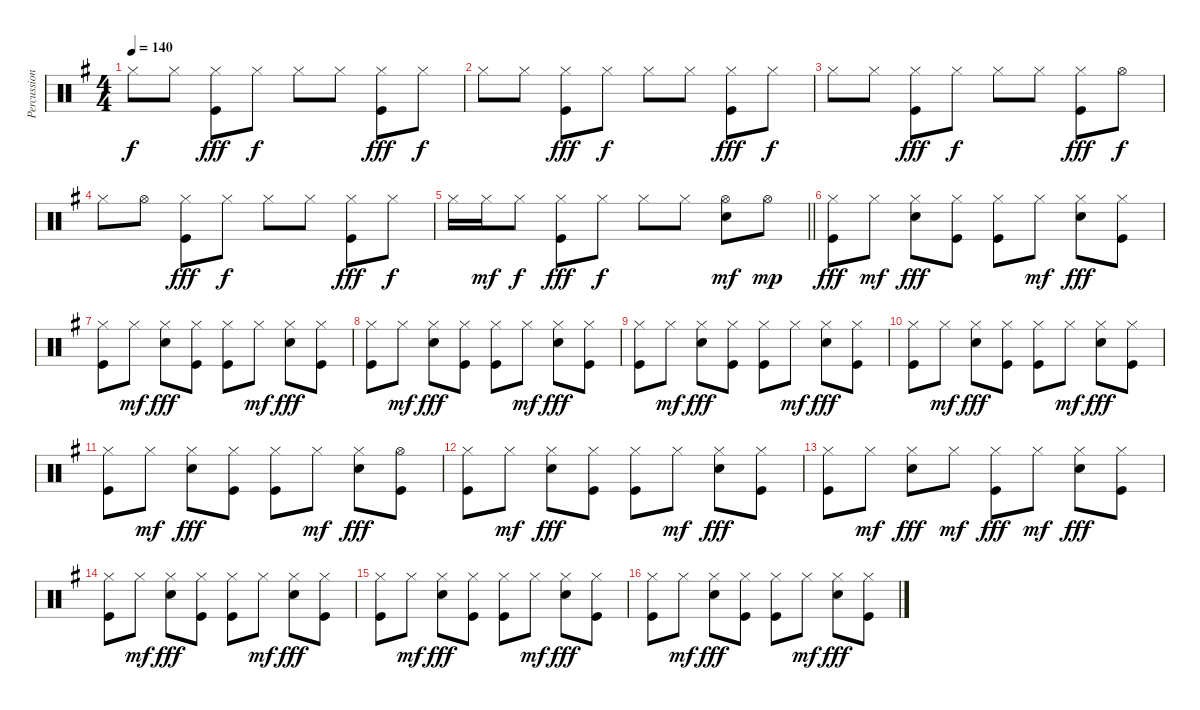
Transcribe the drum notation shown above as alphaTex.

\track ("Percussioni" "Percussion") {instrument percussion}
\staff {score}
\articulation defaults
\ts (4 4)
\tempo 140
\clef neutral
\ks eminor "Hi-Hat (closed)".8{dy f} "Hi-Hat (closed)".8
("Hi-Hat (closed)" "Kick (hit)").8{dy fff} "Hi-Hat (closed)".8{dy f} "Hi-Hat (closed)".8 "Hi-Hat (closed)".8 ("Hi-Hat (closed)" "Kick (hit)").8{dy fff} "Hi-Hat (closed)".8{dy f} |
"Hi-Hat (closed)".8 "Hi-Hat (closed)".8 ("Hi-Hat (closed)" "Kick (hit)").8{dy fff} "Hi-Hat (closed)".8{dy f} "Hi-Hat (closed)".8 "Hi-Hat (closed)".8 ("Hi-Hat (closed)" "Kick (hit)").8{dy fff} "Hi-Hat (closed)".8{dy f} |
"Hi-Hat (closed)".8 "Hi-Hat (closed)".8 ("Hi-Hat (closed)" "Kick (hit)").8{dy fff} "Hi-Hat (closed)".8{dy f} "Hi-Hat (closed)".8 "Hi-Hat (closed)".8 ("Hi-Hat (closed)" "Kick (hit)").8{dy fff} "Hi-Hat (open)".8{dy f} |
"Hi-Hat (closed)".8 "Hi-Hat (open)".8 ("Hi-Hat (closed)" "Kick (hit)").8{dy fff} "Hi-Hat (closed)".8{dy f} "Hi-Hat (closed)".8 "Hi-Hat (closed)".8 ("Hi-Hat (closed)" "Kick (hit)").8{dy fff} "Hi-Hat (closed)".8{dy f} |
\barLineRight lightlight "Hi-Hat (closed)".16 "Hi-Hat (closed)".16{dy mf} "Hi-Hat (closed)".8{dy f}
("Hi-Hat (closed)" "Kick (hit)").8{dy fff} "Hi-Hat (closed)".8{dy f} "Hi-Hat (closed)".8 "Hi-Hat (closed)".8 ("Hi-Hat (open)" "Electric Snare (hit)").8{dy mf} "Hi-Hat (open)".8{dy mp} |
\section ("" "")
("Hi-Hat (closed)" "Kick (hit)").8{dy fff} "Hi-Hat (closed)".8{dy mf} ("Hi-Hat (closed)" "Electric Snare (hit)").8{dy fff} ("Hi-Hat (closed)" "Kick (hit)").8 ("Hi-Hat (closed)" "Kick (hit)").8 "Hi-Hat (closed)".8{dy mf} ("Hi-Hat (closed)" "Electric Snare (hit)").8{dy fff} ("Hi-Hat (closed)" "Kick (hit)").8 |
("Hi-Hat (closed)" "Kick (hit)").8 "Hi-Hat (closed)".8{dy mf} ("Hi-Hat (closed)" "Electric Snare (hit)").8{dy fff} ("Hi-Hat (closed)" "Kick (hit)").8 ("Hi-Hat (closed)" "Kick (hit)").8 "Hi-Hat (closed)".8{dy mf} ("Hi-Hat (closed)" "Electric Snare (hit)").8{dy fff} ("Hi-Hat (closed)" "Kick (hit)").8 |
("Hi-Hat (closed)" "Kick (hit)").8 "Hi-Hat (closed)".8{dy mf} ("Hi-Hat (closed)" "Electric Snare (hit)").8{dy fff} ("Hi-Hat (closed)" "Kick (hit)").8 ("Hi-Hat (closed)" "Kick (hit)").8 "Hi-Hat (closed)".8{dy mf} ("Hi-Hat (closed)" "Electric Snare (hit)").8{dy fff} ("Hi-Hat (closed)" "Kick (hit)").8 |
("Hi-Hat (closed)" "Kick (hit)").8 "Hi-Hat (closed)".8{dy mf} ("Hi-Hat (closed)" "Electric Snare (hit)").8{dy fff} ("Hi-Hat (closed)" "Kick (hit)").8 ("Hi-Hat (closed)" "Kick (hit)").8 "Hi-Hat (closed)".8{dy mf} ("Hi-Hat (closed)" "Electric Snare (hit)").8{dy fff} ("Hi-Hat (closed)" "Kick (hit)").8 |
("Hi-Hat (closed)" "Kick (hit)").8 "Hi-Hat (closed)".8{dy mf} ("Hi-Hat (closed)" "Electric Snare (hit)").8{dy fff} ("Hi-Hat (closed)" "Kick (hit)").8 ("Hi-Hat (closed)" "Kick (hit)").8 "Hi-Hat (closed)".8{dy mf} ("Hi-Hat (closed)" "Electric Snare (hit)").8{dy fff} ("Hi-Hat (closed)" "Kick (hit)").8 |
("Hi-Hat (closed)" "Kick (hit)").8 "Hi-Hat (closed)".8{dy mf} ("Hi-Hat (closed)" "Electric Snare (hit)").8{dy fff} ("Hi-Hat (closed)" "Kick (hit)").8 ("Hi-Hat (closed)" "Kick (hit)").8 "Hi-Hat (closed)".8{dy mf} ("Hi-Hat (closed)" "Electric Snare (hit)").8{dy fff} ("Hi-Hat (open)" "Kick (hit)").8 |
("Hi-Hat (closed)" "Kick (hit)").8 "Hi-Hat (closed)".8{dy mf} ("Hi-Hat (closed)" "Electric Snare (hit)").8{dy fff} ("Hi-Hat (closed)" "Kick (hit)").8 ("Hi-Hat (closed)" "Kick (hit)").8 "Hi-Hat (closed)".8{dy mf} ("Hi-Hat (closed)" "Electric Snare (hit)").8{dy fff} ("Hi-Hat (closed)" "Kick (hit)").8 |
("Hi-Hat (closed)" "Kick (hit)").8 "Hi-Hat (closed)".8{dy mf} ("Hi-Hat (closed)" "Electric Snare (hit)").8{dy fff} "Hi-Hat (closed)".8{dy mf} ("Hi-Hat (closed)" "Kick (hit)").8{dy fff} "Hi-Hat (closed)".8{dy mf} ("Hi-Hat (closed)" "Electric Snare (hit)").8{dy fff} ("Hi-Hat (closed)" "Kick (hit)").8 |
("Hi-Hat (closed)" "Kick (hit)").8 "Hi-Hat (closed)".8{dy mf} ("Hi-Hat (closed)" "Electric Snare (hit)").8{dy fff} ("Hi-Hat (closed)" "Kick (hit)").8 ("Hi-Hat (closed)" "Kick (hit)").8 "Hi-Hat (closed)".8{dy mf} ("Hi-Hat (closed)" "Electric Snare (hit)").8{dy fff} ("Hi-Hat (closed)" "Kick (hit)").8 |
("Hi-Hat (closed)" "Kick (hit)").8 "Hi-Hat (closed)".8{dy mf} ("Hi-Hat (closed)" "Electric Snare (hit)").8{dy fff} ("Hi-Hat (closed)" "Kick (hit)").8 ("Hi-Hat (closed)" "Kick (hit)").8 "Hi-Hat (closed)".8{dy mf} ("Hi-Hat (closed)" "Electric Snare (hit)").8{dy fff} ("Hi-Hat (closed)" "Kick (hit)").8 |
("Hi-Hat (closed)" "Kick (hit)").8 "Hi-Hat (closed)".8{dy mf} ("Hi-Hat (closed)" "Electric Snare (hit)").8{dy fff} ("Hi-Hat (closed)" "Kick (hit)").8 ("Hi-Hat (closed)" "Kick (hit)").8 "Hi-Hat (closed)".8{dy mf} ("Hi-Hat (closed)" "Electric Snare (hit)").8{dy fff} ("Hi-Hat (closed)" "Kick (hit)").8
